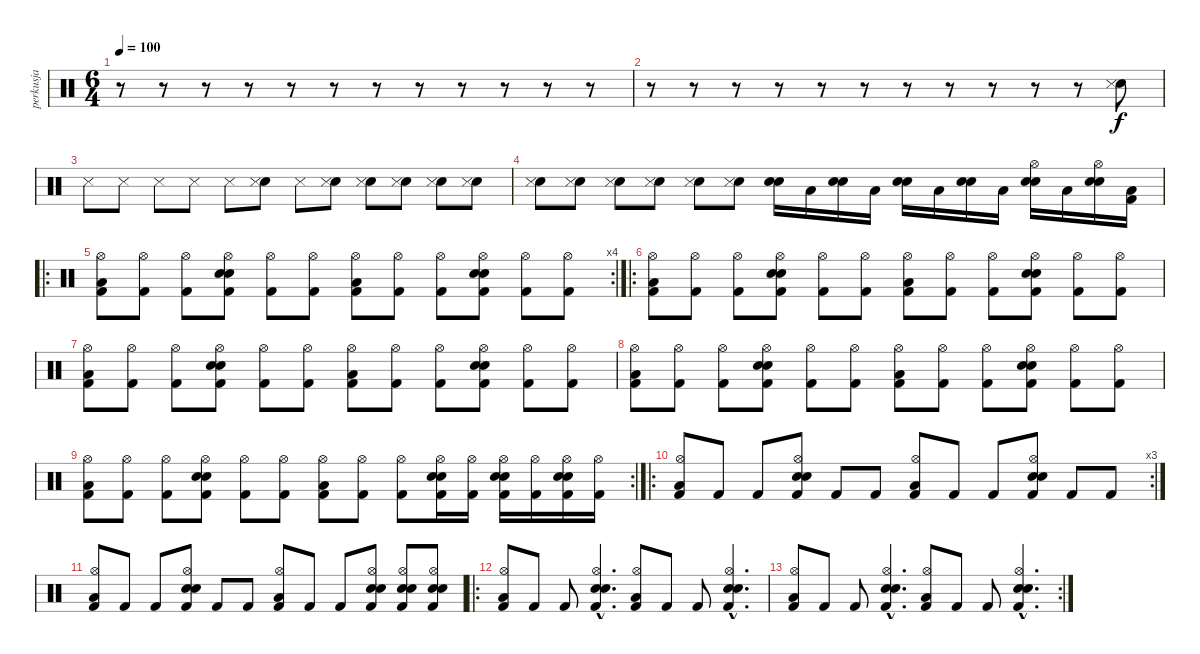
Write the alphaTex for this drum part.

\track ("perkusja" "perkusja") {instrument percussion}
\staff {score}
\articulation defaults
\ts (6 4)
\tempo 100
\clef neutral
\ks c
r.8{dy f} r.8 r.8 r.8 r.8 r.8 r.8 r.8 r.8 r.8 r.8 r.8 |
r.8 r.8 r.8 r.8 r.8 r.8 r.8 r.8 r.8 r.8 r.8 ("Electric Snare (hit)" "Metronome (hit)").8 |
"Metronome (hit)".8 "Metronome (hit)".8 "Metronome (hit)".8 "Metronome (hit)".8 "Metronome (hit)".8 ("Electric Snare (hit)" "Metronome (hit)").8 "Metronome (hit)".8 ("Electric Snare (hit)" "Metronome (hit)").8 ("Electric Snare (hit)" "Metronome (hit)").8 ("Electric Snare (hit)" "Metronome (hit)").8 ("Electric Snare (hit)" "Metronome (hit)").8 ("Electric Snare (hit)" "Metronome (hit)").8 |
("Electric Snare (hit)" "Metronome (hit)").8 ("Electric Snare (hit)" "Metronome (hit)").8 ("Electric Snare (hit)" "Metronome (hit)").8 ("Electric Snare (hit)" "Metronome (hit)").8 ("Electric Snare (hit)" "Metronome (hit)").8 ("Electric Snare (hit)" "Metronome (hit)").8 ("Electric Snare (hit)" "Snare (hit) 2").16 "Low Tom (hit)".16 ("Electric Snare (hit)" "Snare (hit) 2").16 "Low Tom (hit)".16 ("Electric Snare (hit)" "Snare (hit) 2").16 "Low Tom (hit)".16 ("Electric Snare (hit)" "Snare (hit) 2").16 "Low Tom (hit)".16 ("Hi-Hat (open)" "Electric Snare (hit)" "Snare (hit) 2").16 "Low Tom (hit)".16 ("Hi-Hat (open)" "Electric Snare (hit)" "Snare (hit) 2").16 ("Low Tom (hit)" "Kick (hit) 2").16 |
\ro
\rc 4
("Hi-Hat (open)" "Low Tom (hit)" "Kick (hit) 2").8 ("Hi-Hat (open)" "Kick (hit) 2").8 ("Hi-Hat (open)" "Kick (hit) 2").8 ("Hi-Hat (open)" "Electric Snare (hit)" "Snare (hit) 2" "Kick (hit) 2").8 ("Hi-Hat (open)" "Kick (hit) 2").8 ("Hi-Hat (open)" "Kick (hit) 2").8 ("Hi-Hat (open)" "Low Tom (hit)" "Kick (hit) 2").8 ("Hi-Hat (open)" "Kick (hit) 2").8 ("Hi-Hat (open)" "Kick (hit) 2").8 ("Hi-Hat (open)" "Electric Snare (hit)" "Snare (hit) 2" "Kick (hit) 2").8 ("Hi-Hat (open)" "Kick (hit) 2").8 ("Hi-Hat (open)" "Kick (hit) 2").8 |
\ro
("Hi-Hat (open)" "Low Tom (hit)" "Kick (hit) 2").8 ("Hi-Hat (open)" "Kick (hit) 2").8 ("Hi-Hat (open)" "Kick (hit) 2").8 ("Hi-Hat (open)" "Electric Snare (hit)" "Snare (hit) 2" "Kick (hit) 2").8 ("Hi-Hat (open)" "Kick (hit) 2").8 ("Hi-Hat (open)" "Kick (hit) 2").8 ("Hi-Hat (open)" "Low Tom (hit)" "Kick (hit) 2").8 ("Hi-Hat (open)" "Kick (hit) 2").8 ("Hi-Hat (open)" "Kick (hit) 2").8 ("Hi-Hat (open)" "Electric Snare (hit)" "Snare (hit) 2" "Kick (hit) 2").8 ("Hi-Hat (open)" "Kick (hit) 2").8 ("Hi-Hat (open)" "Kick (hit) 2").8 |
("Hi-Hat (open)" "Low Tom (hit)" "Kick (hit) 2").8 ("Hi-Hat (open)" "Kick (hit) 2").8 ("Hi-Hat (open)" "Kick (hit) 2").8 ("Hi-Hat (open)" "Electric Snare (hit)" "Snare (hit) 2" "Kick (hit) 2").8 ("Hi-Hat (open)" "Kick (hit) 2").8 ("Hi-Hat (open)" "Kick (hit) 2").8 ("Hi-Hat (open)" "Low Tom (hit)" "Kick (hit) 2").8 ("Hi-Hat (open)" "Kick (hit) 2").8 ("Hi-Hat (open)" "Kick (hit) 2").8 ("Hi-Hat (open)" "Electric Snare (hit)" "Snare (hit) 2" "Kick (hit) 2").8 ("Hi-Hat (open)" "Kick (hit) 2").8 ("Hi-Hat (open)" "Kick (hit) 2").8 |
("Hi-Hat (open)" "Low Tom (hit)" "Kick (hit) 2").8 ("Hi-Hat (open)" "Kick (hit) 2").8 ("Hi-Hat (open)" "Kick (hit) 2").8 ("Hi-Hat (open)" "Electric Snare (hit)" "Snare (hit) 2" "Kick (hit) 2").8 ("Hi-Hat (open)" "Kick (hit) 2").8 ("Hi-Hat (open)" "Kick (hit) 2").8 ("Hi-Hat (open)" "Low Tom (hit)" "Kick (hit) 2").8 ("Hi-Hat (open)" "Kick (hit) 2").8 ("Hi-Hat (open)" "Kick (hit) 2").8 ("Hi-Hat (open)" "Electric Snare (hit)" "Snare (hit) 2" "Kick (hit) 2").8 ("Hi-Hat (open)" "Kick (hit) 2").8 ("Hi-Hat (open)" "Kick (hit) 2").8 |
\rc 2
("Hi-Hat (open)" "Low Tom (hit)" "Kick (hit) 2").8 ("Hi-Hat (open)" "Kick (hit) 2").8 ("Hi-Hat (open)" "Kick (hit) 2").8 ("Hi-Hat (open)" "Electric Snare (hit)" "Snare (hit) 2" "Kick (hit) 2").8 ("Hi-Hat (open)" "Kick (hit) 2").8 ("Hi-Hat (open)" "Kick (hit) 2").8 ("Hi-Hat (open)" "Low Tom (hit)" "Kick (hit) 2").8 ("Hi-Hat (open)" "Kick (hit) 2").8 ("Hi-Hat (open)" "Kick (hit) 2").8 ("Hi-Hat (open)" "Electric Snare (hit)" "Snare (hit) 2" "Kick (hit) 2").16 ("Hi-Hat (open)" "Kick (hit) 2").16 ("Hi-Hat (open)" "Electric Snare (hit)" "Snare (hit) 2" "Kick (hit) 2").16 ("Hi-Hat (open)" "Kick (hit) 2").16 ("Hi-Hat (open)" "Electric Snare (hit)" "Snare (hit) 2" "Kick (hit) 2").16 ("Hi-Hat (open)" "Kick (hit) 2").16 |
\ro
\rc 3
("Hi-Hat (open)" "Low Tom (hit)" "Kick (hit) 2").8 "Kick (hit) 2".8 "Kick (hit) 2".8 ("Hi-Hat (open)" "Electric Snare (hit)" "Snare (hit) 2" "Kick (hit) 2").8 "Kick (hit) 2".8 "Kick (hit) 2".8 ("Hi-Hat (open)" "Low Tom (hit)" "Kick (hit) 2").8 "Kick (hit) 2".8 "Kick (hit) 2".8 ("Hi-Hat (open)" "Electric Snare (hit)" "Snare (hit) 2" "Kick (hit) 2").8 "Kick (hit) 2".8 "Kick (hit) 2".8 |
("Hi-Hat (open)" "Low Tom (hit)" "Kick (hit) 2").8 "Kick (hit) 2".8 "Kick (hit) 2".8 ("Hi-Hat (open)" "Electric Snare (hit)" "Snare (hit) 2" "Kick (hit) 2").8 "Kick (hit) 2".8 "Kick (hit) 2".8 ("Hi-Hat (open)" "Low Tom (hit)" "Kick (hit) 2").8 "Kick (hit) 2".8 "Kick (hit) 2".8 ("Hi-Hat (open)" "Electric Snare (hit)" "Snare (hit) 2" "Kick (hit) 2").8 ("Hi-Hat (open)" "Electric Snare (hit)" "Snare (hit) 2" "Kick (hit) 2").8 ("Hi-Hat (open)" "Electric Snare (hit)" "Snare (hit) 2" "Kick (hit) 2").8 |
\ro
("Hi-Hat (open)" "Low Tom (hit)" "Kick (hit) 2").8 "Kick (hit) 2".8 "Kick (hit) 2".8 ("Hi-Hat (open)"{hac} "Electric Snare (hit)"{hac} "Snare (hit) 2"{hac} "Kick (hit) 2"{hac}).4{d} ("Hi-Hat (open)" "Low Tom (hit)" "Kick (hit) 2").8 "Kick (hit) 2".8 "Kick (hit) 2".8 ("Hi-Hat (open)"{hac} "Electric Snare (hit)"{hac} "Snare (hit) 2"{hac} "Kick (hit) 2"{hac}).4{d} |
\rc 2
("Hi-Hat (open)" "Low Tom (hit)" "Kick (hit) 2").8 "Kick (hit) 2".8 "Kick (hit) 2".8 ("Hi-Hat (open)"{hac} "Electric Snare (hit)"{hac} "Snare (hit) 2"{hac} "Kick (hit) 2"{hac}).4{d} ("Hi-Hat (open)" "Low Tom (hit)" "Kick (hit) 2").8 "Kick (hit) 2".8 "Kick (hit) 2".8 ("Hi-Hat (open)"{hac} "Electric Snare (hit)"{hac} "Snare (hit) 2"{hac} "Kick (hit) 2"{hac}).4{d}
